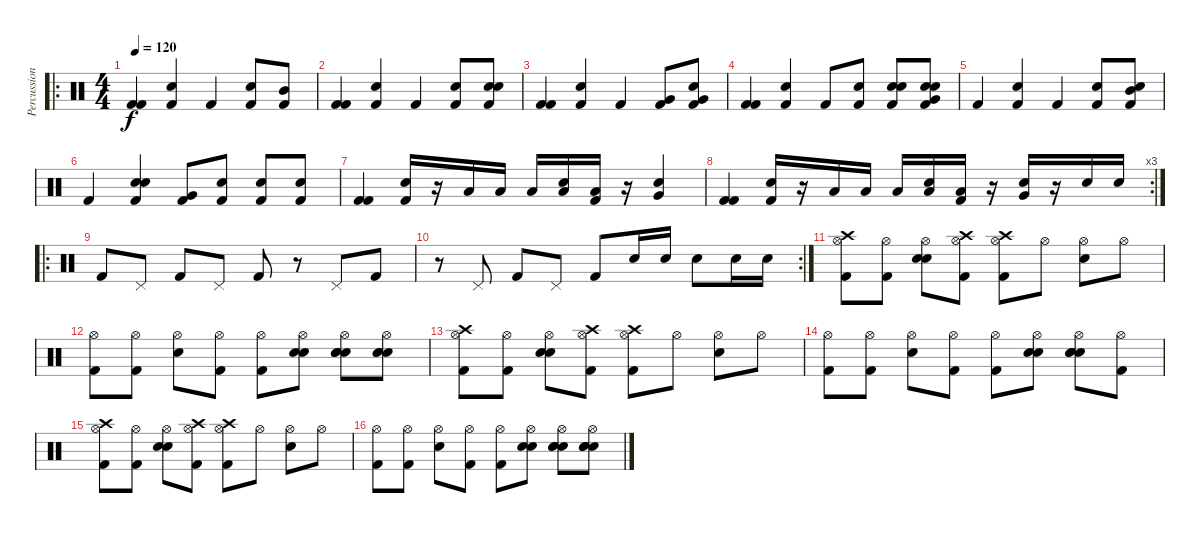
\track ("Percussion" "Percussion") {instrument percussion}
\staff {score}
\articulation defaults
\ro
\ts (4 4)
\tempo 120
\clef neutral
\ks c
("Kick (hit) 2" "Kick (hit) 2").4{dy f} ("Kick (hit) 2" "Electric Snare (hit)").4 "Kick (hit) 2".4 ("Kick (hit) 2" "Electric Snare (hit)").8 ("Kick (hit) 2" "Mid Tom (hit)").8 |
("Kick (hit) 2" "Kick (hit) 2").4 ("Kick (hit) 2" "Electric Snare (hit)").4 "Kick (hit) 2".4 ("Kick (hit) 2" "Electric Snare (hit)").8 ("Kick (hit) 2" "Electric Snare (hit)" "Electric Snare (hit)").8 |
("Kick (hit) 2" "Kick (hit) 2").4 ("Kick (hit) 2" "Electric Snare (hit)").4 "Kick (hit) 2".4 ("Kick (hit) 2" "Very Low Tom (hit)").8 ("Kick (hit) 2" "Very Low Tom (hit)" "Electric Snare (hit)").8 |
("Kick (hit) 2" "Kick (hit) 2").4 ("Kick (hit) 2" "Electric Snare (hit)").4 "Kick (hit) 2".8 ("Kick (hit) 2" "Electric Snare (hit)").8 ("Kick (hit) 2" "Electric Snare (hit)" "Electric Snare (hit)").8 ("Kick (hit) 2" "Electric Snare (hit)" "Electric Snare (hit)" "Very Low Tom (hit)").8 |
"Kick (hit) 2".4 ("Kick (hit) 2" "Electric Snare (hit)").4 "Kick (hit) 2".4 ("Kick (hit) 2" "Electric Snare (hit)").8 ("Kick (hit) 2" "Electric Snare (hit)" "Mid Tom (hit)").8 |
"Kick (hit) 2".4 ("Kick (hit) 2" "Electric Snare (hit)" "Electric Snare (hit)").4 ("Kick (hit) 2" "Very Low Tom (hit)").8 ("Kick (hit) 2" "Electric Snare (hit)").8 ("Kick (hit) 2" "Electric Snare (hit)").8 ("Kick (hit) 2" "Electric Snare (hit)").8 |
("Kick (hit) 2" "Kick (hit) 2").4 ("Kick (hit) 2" "Electric Snare (hit)").16 r.16 "Low Tom (hit)".16 "Low Tom (hit)".16 "Low Tom (hit)".16 ("Low Tom (hit)" "Electric Snare (hit)").16 ("Low Tom (hit)" "Kick (hit) 2").16 r.16 ("Electric Snare (hit)" "Very Low Tom (hit)").4 |
\rc 3
("Kick (hit) 2" "Kick (hit) 2").4 ("Kick (hit) 2" "Electric Snare (hit)").16 r.16 "Low Tom (hit)".16 "Low Tom (hit)".16 "Low Tom (hit)".16 ("Low Tom (hit)" "Electric Snare (hit)").16 ("Low Tom (hit)" "Kick (hit) 2").16 r.16 ("Electric Snare (hit)" "Very Low Tom (hit)").16 r.16 "Electric Snare (hit)".16 "Electric Snare (hit)".16 |
\ro "Kick (hit) 2".8 "Pedal Hi-Hat (hit)".8 "Kick (hit) 2".8 "Pedal Hi-Hat (hit)".8 "Kick (hit) 2".8
r.8 "Pedal Hi-Hat (hit)".8 "Kick (hit) 2".8 |
\rc 2
r.8 "Pedal Hi-Hat (hit)".8 "Kick (hit) 2".8 "Pedal Hi-Hat (hit)".8 "Kick (hit) 2".8 "Electric Snare (hit)".16 "Electric Snare (hit)".16 "Electric Snare (hit)".8 "Electric Snare (hit)".16 "Electric Snare (hit)".16 |
("Hi-Hat (open)" "Kick (hit) 2" "Crash high (hit)").8 ("Hi-Hat (open)" "Kick (hit) 2").8 ("Hi-Hat (open)" "Electric Snare (hit)" "Electric Snare (hit)").8 ("Hi-Hat (open)" "Kick (hit) 2" "Crash high (hit)").8 ("Hi-Hat (open)" "Kick (hit) 2" "Crash high (hit)").8 "Hi-Hat (open)".8 ("Hi-Hat (open)" "Electric Snare (hit)").8 "Hi-Hat (open)".8 |
("Hi-Hat (open)" "Kick (hit) 2").8 ("Hi-Hat (open)" "Kick (hit) 2").8 ("Hi-Hat (open)" "Electric Snare (hit)").8 ("Hi-Hat (open)" "Kick (hit) 2").8 ("Hi-Hat (open)" "Kick (hit) 2").8 ("Hi-Hat (open)" "Electric Snare (hit)" "Electric Snare (hit)").8 ("Hi-Hat (open)" "Electric Snare (hit)" "Electric Snare (hit)" "Electric Snare (hit)").8 ("Hi-Hat (open)" "Electric Snare (hit)" "Electric Snare (hit)" "Electric Snare (hit)").8 |
("Hi-Hat (open)" "Kick (hit) 2" "Crash high (hit)").8 ("Hi-Hat (open)" "Kick (hit) 2").8 ("Hi-Hat (open)" "Electric Snare (hit)" "Electric Snare (hit)").8 ("Hi-Hat (open)" "Kick (hit) 2" "Crash high (hit)").8 ("Hi-Hat (open)" "Kick (hit) 2" "Crash high (hit)").8 "Hi-Hat (open)".8 ("Hi-Hat (open)" "Electric Snare (hit)").8 "Hi-Hat (open)".8 |
("Hi-Hat (open)" "Kick (hit) 2").8 ("Hi-Hat (open)" "Kick (hit) 2").8 ("Hi-Hat (open)" "Electric Snare (hit)").8 ("Hi-Hat (open)" "Kick (hit) 2").8 ("Hi-Hat (open)" "Kick (hit) 2").8 ("Hi-Hat (open)" "Electric Snare (hit)" "Electric Snare (hit)").8 ("Hi-Hat (open)" "Electric Snare (hit)" "Electric Snare (hit)" "Electric Snare (hit)").8 ("Hi-Hat (open)" "Kick (hit) 2").8 |
("Hi-Hat (open)" "Kick (hit) 2" "Crash high (hit)").8 ("Hi-Hat (open)" "Kick (hit) 2").8 ("Hi-Hat (open)" "Electric Snare (hit)" "Electric Snare (hit)").8 ("Hi-Hat (open)" "Kick (hit) 2" "Crash high (hit)").8 ("Hi-Hat (open)" "Kick (hit) 2" "Crash high (hit)").8 "Hi-Hat (open)".8 ("Hi-Hat (open)" "Electric Snare (hit)").8 "Hi-Hat (open)".8 |
("Hi-Hat (open)" "Kick (hit) 2").8 ("Hi-Hat (open)" "Kick (hit) 2").8 ("Hi-Hat (open)" "Electric Snare (hit)").8 ("Hi-Hat (open)" "Kick (hit) 2").8 ("Hi-Hat (open)" "Kick (hit) 2").8 ("Hi-Hat (open)" "Electric Snare (hit)" "Electric Snare (hit)").8 ("Hi-Hat (open)" "Electric Snare (hit)" "Electric Snare (hit)" "Electric Snare (hit)").8 ("Hi-Hat (open)" "Electric Snare (hit)" "Electric Snare (hit)" "Electric Snare (hit)").8
